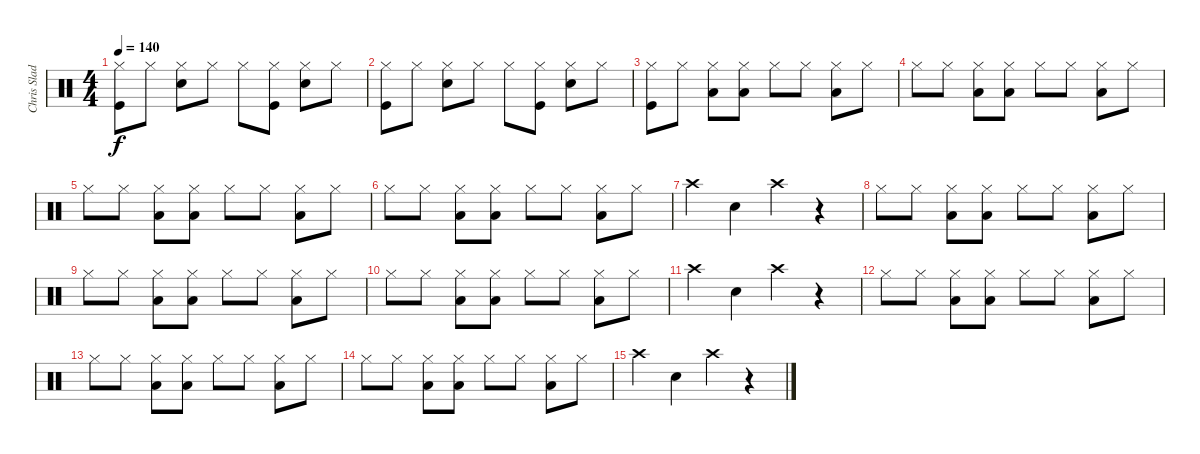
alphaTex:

\track ("Chris Slade" "Chris Slad") {instrument percussion}
\staff {score}
\articulation defaults
\ts (4 4)
\tempo 140
\clef neutral
\ks c
("Hi-Hat (closed)" "Kick (hit)").8{dy f} "Hi-Hat (closed)".8 ("Hi-Hat (closed)" "Snare (hit) 2").8 "Hi-Hat (closed)".8 "Hi-Hat (closed)".8 ("Hi-Hat (closed)" "Kick (hit)").8 ("Hi-Hat (closed)" "Snare (hit) 2").8 "Hi-Hat (closed)".8 |
("Hi-Hat (closed)" "Kick (hit)").8 "Hi-Hat (closed)".8 ("Hi-Hat (closed)" "Snare (hit) 2").8 "Hi-Hat (closed)".8 "Hi-Hat (closed)".8 ("Hi-Hat (closed)" "Kick (hit)").8 ("Hi-Hat (closed)" "Snare (hit) 2").8 "Hi-Hat (closed)".8 |
("Hi-Hat (closed)" "Kick (hit)").8 "Hi-Hat (closed)".8 ("Hi-Hat (closed)" "Low Tom (hit)").8 ("Hi-Hat (closed)" "Low Tom (hit)").8 "Hi-Hat (closed)".8 "Hi-Hat (closed)".8 ("Hi-Hat (closed)" "Low Tom (hit)").8 "Hi-Hat (closed)".8 |
"Hi-Hat (closed)".8 "Hi-Hat (closed)".8 ("Hi-Hat (closed)" "Low Tom (hit)").8 ("Hi-Hat (closed)" "Low Tom (hit)").8 "Hi-Hat (closed)".8 "Hi-Hat (closed)".8 ("Hi-Hat (closed)" "Low Tom (hit)").8 "Hi-Hat (closed)".8 |
"Hi-Hat (closed)".8 "Hi-Hat (closed)".8 ("Hi-Hat (closed)" "Low Tom (hit)").8 ("Hi-Hat (closed)" "Low Tom (hit)").8 "Hi-Hat (closed)".8 "Hi-Hat (closed)".8 ("Hi-Hat (closed)" "Low Tom (hit)").8 "Hi-Hat (closed)".8 |
"Hi-Hat (closed)".8 "Hi-Hat (closed)".8 ("Hi-Hat (closed)" "Low Tom (hit)").8 ("Hi-Hat (closed)" "Low Tom (hit)").8 "Hi-Hat (closed)".8 "Hi-Hat (closed)".8 ("Hi-Hat (closed)" "Low Tom (hit)").8 "Hi-Hat (closed)".8 |
"Crash high (hit)".4 "Snare (hit) 2".4 "Crash high (hit)".4 r.4 |
"Hi-Hat (closed)".8 "Hi-Hat (closed)".8 ("Hi-Hat (closed)" "Low Tom (hit)").8 ("Hi-Hat (closed)" "Low Tom (hit)").8 "Hi-Hat (closed)".8 "Hi-Hat (closed)".8 ("Hi-Hat (closed)" "Low Tom (hit)").8 "Hi-Hat (closed)".8 |
"Hi-Hat (closed)".8 "Hi-Hat (closed)".8 ("Hi-Hat (closed)" "Low Tom (hit)").8 ("Hi-Hat (closed)" "Low Tom (hit)").8 "Hi-Hat (closed)".8 "Hi-Hat (closed)".8 ("Hi-Hat (closed)" "Low Tom (hit)").8 "Hi-Hat (closed)".8 |
"Hi-Hat (closed)".8 "Hi-Hat (closed)".8 ("Hi-Hat (closed)" "Low Tom (hit)").8 ("Hi-Hat (closed)" "Low Tom (hit)").8 "Hi-Hat (closed)".8 "Hi-Hat (closed)".8 ("Hi-Hat (closed)" "Low Tom (hit)").8 "Hi-Hat (closed)".8 |
"Crash high (hit)".4 "Snare (hit) 2".4 "Crash high (hit)".4 r.4 |
"Hi-Hat (closed)".8 "Hi-Hat (closed)".8 ("Hi-Hat (closed)" "Low Tom (hit)").8 ("Hi-Hat (closed)" "Low Tom (hit)").8 "Hi-Hat (closed)".8 "Hi-Hat (closed)".8 ("Hi-Hat (closed)" "Low Tom (hit)").8 "Hi-Hat (closed)".8 |
"Hi-Hat (closed)".8 "Hi-Hat (closed)".8 ("Hi-Hat (closed)" "Low Tom (hit)").8 ("Hi-Hat (closed)" "Low Tom (hit)").8 "Hi-Hat (closed)".8 "Hi-Hat (closed)".8 ("Hi-Hat (closed)" "Low Tom (hit)").8 "Hi-Hat (closed)".8 |
"Hi-Hat (closed)".8 "Hi-Hat (closed)".8 ("Hi-Hat (closed)" "Low Tom (hit)").8 ("Hi-Hat (closed)" "Low Tom (hit)").8 "Hi-Hat (closed)".8 "Hi-Hat (closed)".8 ("Hi-Hat (closed)" "Low Tom (hit)").8 "Hi-Hat (closed)".8 |
"Crash high (hit)".4 "Snare (hit) 2".4 "Crash high (hit)".4 r.4
